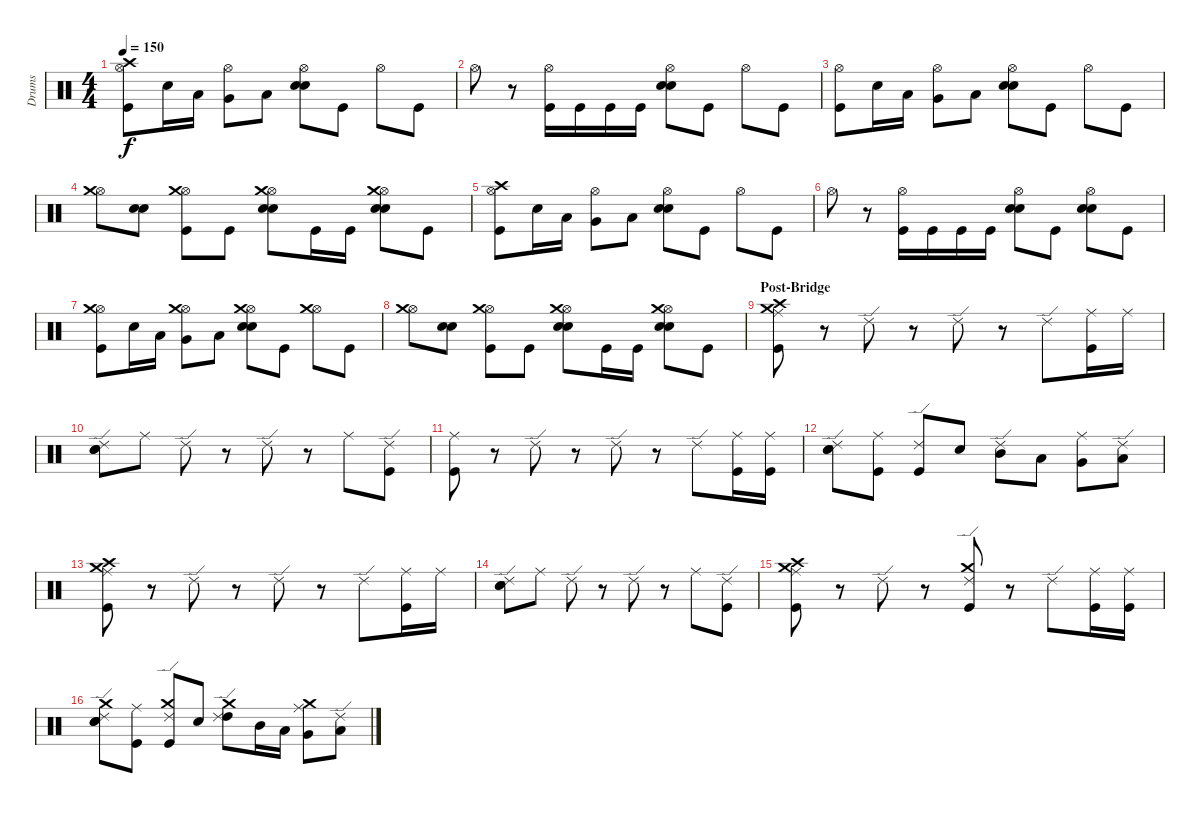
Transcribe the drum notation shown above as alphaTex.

\track ("Drums" "Drums") {instrument percussion}
\staff {score}
\articulation defaults
\ts (4 4)
\tempo 150
\clef neutral
\ks c
("Kick (hit)" "Hi-Hat (open)" "Crash high (hit)").8{dy f} "Electric Snare (hit)".16 "Low Tom (hit)".16 ("Very Low Tom (hit)" "Hi-Hat (open)").8 "Low Floor Tom (hit)".8 ("Electric Snare (hit)" "Electric Snare (hit)" "Hi-Hat (open)").8 "Kick (hit)".8 "Hi-Hat (open)".8 "Kick (hit)".8 |
"Hi-Hat (open)".8 r.8 ("Kick (hit)" "Hi-Hat (open)").16 "Kick (hit)".16 "Kick (hit)".16 "Kick (hit)".16 ("Electric Snare (hit)" "Electric Snare (hit)" "Hi-Hat (open)").8 "Kick (hit)".8 "Hi-Hat (open)".8 "Kick (hit)".8 |
("Kick (hit)" "Hi-Hat (open)").8 "Electric Snare (hit)".16 "Low Tom (hit)".16 ("Very Low Tom (hit)" "Hi-Hat (open)").8 "Low Floor Tom (hit)".8 ("Electric Snare (hit)" "Electric Snare (hit)" "Hi-Hat (open)").8 "Kick (hit)".8 "Hi-Hat (open)".8 "Kick (hit)".8 |
("Hi-Hat (open)" "Crash medium (hit)").8 ("Electric Snare (hit)" "Electric Snare (hit)").8 ("Kick (hit)" "Hi-Hat (open)" "Crash medium (hit)").8 "Kick (hit)".8 ("Electric Snare (hit)" "Electric Snare (hit)" "Hi-Hat (open)" "Crash medium (hit)").8 "Kick (hit)".16 "Kick (hit)".16 ("Electric Snare (hit)" "Electric Snare (hit)" "Hi-Hat (open)" "Crash medium (hit)").8 "Kick (hit)".8 |
("Kick (hit)" "Hi-Hat (open)" "Crash high (hit)").8 "Electric Snare (hit)".16 "Low Tom (hit)".16 ("Very Low Tom (hit)" "Hi-Hat (open)").8 "Low Floor Tom (hit)".8 ("Electric Snare (hit)" "Electric Snare (hit)" "Hi-Hat (open)").8 "Kick (hit)".8 "Hi-Hat (open)".8 "Kick (hit)".8 |
"Hi-Hat (open)".8 r.8 ("Kick (hit)" "Hi-Hat (open)").16 "Kick (hit)".16 "Kick (hit)".16 "Kick (hit)".16 ("Electric Snare (hit)" "Electric Snare (hit)" "Hi-Hat (open)").8 "Kick (hit)".8 ("Electric Snare (hit)" "Electric Snare (hit)" "Hi-Hat (open)").8 "Kick (hit)".8 |
("Kick (hit)" "Hi-Hat (open)" "Crash medium (hit)").8 "Electric Snare (hit)".16 "Low Tom (hit)".16 ("Very Low Tom (hit)" "Hi-Hat (open)" "Crash medium (hit)").8 "Low Floor Tom (hit)".8 ("Electric Snare (hit)" "Electric Snare (hit)" "Hi-Hat (open)" "Crash medium (hit)").8 "Kick (hit)".8 ("Hi-Hat (open)" "Crash medium (hit)").8 "Kick (hit)".8 |
("Hi-Hat (open)" "Crash medium (hit)").8 ("Electric Snare (hit)" "Electric Snare (hit)").8 ("Kick (hit)" "Hi-Hat (open)" "Crash medium (hit)").8 "Kick (hit)".8 ("Electric Snare (hit)" "Electric Snare (hit)" "Hi-Hat (open)" "Crash medium (hit)").8 "Kick (hit)".16 "Kick (hit)".16 ("Electric Snare (hit)" "Electric Snare (hit)" "Hi-Hat (open)" "Crash medium (hit)").8 "Kick (hit)".8 |
\section ("" "Post-Bridge")
("Kick (hit)" "Ride (middle)" "Crash high (hit)" "Crash medium (hit)").8 r.8 "Ride (edge) 2".8 r.8 "Ride (edge) 2".8 r.8 "Ride (edge) 2".8 ("Kick (hit)" "Ride (middle)").16 "Ride (middle)".16 |
("Electric Snare (hit)" "Electric Snare (hit)" "Ride (edge) 2").8 "Ride (middle)".8 "Ride (edge) 2".8 r.8 "Ride (edge) 2".8 r.8 "Ride (middle)".8 ("Kick (hit)" "Ride (edge) 2").8 |
("Kick (hit)" "Ride (middle)").8 r.8 "Ride (edge) 2".8 r.8 "Ride (edge) 2".8 r.8 "Ride (edge) 2".8 ("Kick (hit)" "Ride (middle)").16 ("Kick (hit)" "Ride (middle)").16 |
("Electric Snare (hit)" "Electric Snare (hit)" "Ride (edge) 2").8 ("Kick (hit)" "Ride (middle)").8 ("Kick (hit)" "Ride (edge) 2").8 "Electric Snare (hit)".8 ("Mid Tom (hit)" "Ride (edge) 2").8 "Low Tom (hit)".8 ("Very Low Tom (hit)" "Ride (middle)").8 ("Low Floor Tom (hit)" "Ride (edge) 2").8 |
("Kick (hit)" "Ride (middle)" "Crash high (hit)" "Crash medium (hit)").8 r.8 "Ride (edge) 2".8 r.8 "Ride (edge) 2".8 r.8 "Ride (edge) 2".8 ("Kick (hit)" "Ride (middle)").16 "Ride (middle)".16 |
("Electric Snare (hit)" "Electric Snare (hit)" "Ride (edge) 2").8 "Ride (middle)".8 "Ride (edge) 2".8 r.8 "Ride (edge) 2".8 r.8 "Ride (middle)".8 ("Kick (hit)" "Ride (edge) 2").8 |
("Kick (hit)" "Ride (middle)" "Crash high (hit)" "Crash medium (hit)").8 r.8 "Ride (edge) 2".8 r.8 ("Kick (hit)" "Ride (edge) 2" "Crash medium (hit)").8 r.8 "Ride (edge) 2".8 ("Kick (hit)" "Ride (middle)").16 ("Kick (hit)" "Ride (middle)").16 |
("Electric Snare (hit)" "Electric Snare (hit)" "Ride (edge) 2" "Crash medium (hit)").8 ("Kick (hit)" "Ride (middle)").8 ("Kick (hit)" "Ride (edge) 2" "Crash medium (hit)").8 "Electric Snare (hit)".8 ("High Tom (hit)" "Ride (edge) 2" "Crash medium (hit)").8 "Mid Tom (hit)".16 "Low Tom (hit)".16 ("Very Low Tom (hit)" "Ride (middle)" "Crash medium (hit)").8 ("Low Floor Tom (hit)" "Ride (edge) 2").8
